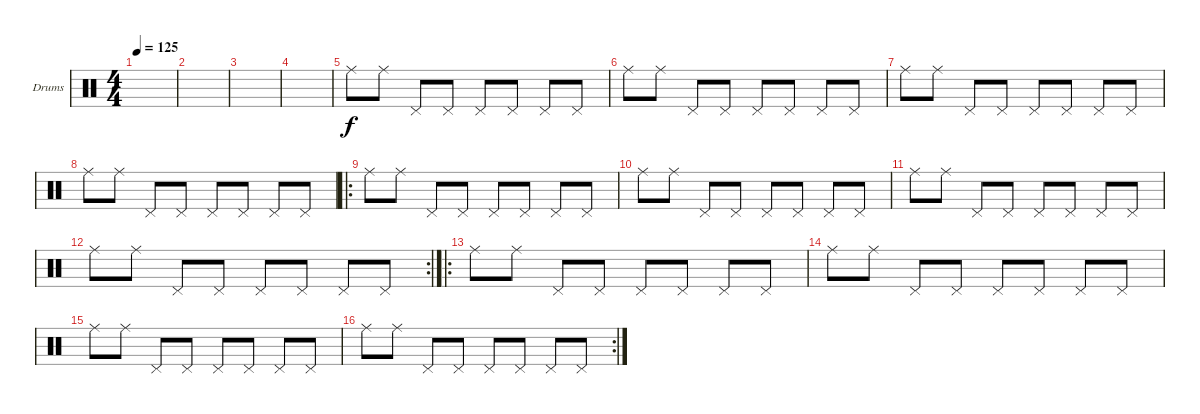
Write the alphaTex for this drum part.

\defaultSystemsLayout 4
\bracketExtendMode groupsimilarinstruments
\firstSystemTrackNameOrientation horizontal
\otherSystemsTrackNameOrientation horizontal
\track ("Drumkit" "Drums") {instrument percussion}
\staff {score}
\articulation defaults
\ts (4 4)
\tempo 125
\clef neutral
\scale
0.474178
\ks c
|
\scale
0.262911 |
\scale
0.262911 |
\scale
0.333333 |
\scale
0.333333 "Ride (middle)".8 "Ride (middle)".8 "Pedal Hi-Hat (hit)".8 "Pedal Hi-Hat (hit)".8 "Pedal Hi-Hat (hit)".8 "Pedal Hi-Hat (hit)".8 "Pedal Hi-Hat (hit)".8 "Pedal Hi-Hat (hit)".8 |
\scale
0.333333 "Ride (middle)".8 "Ride (middle)".8 "Pedal Hi-Hat (hit)".8 "Pedal Hi-Hat (hit)".8 "Pedal Hi-Hat (hit)".8 "Pedal Hi-Hat (hit)".8 "Pedal Hi-Hat (hit)".8 "Pedal Hi-Hat (hit)".8 |
\scale
0.333333 "Ride (middle)".8 "Ride (middle)".8 "Pedal Hi-Hat (hit)".8 "Pedal Hi-Hat (hit)".8 "Pedal Hi-Hat (hit)".8 "Pedal Hi-Hat (hit)".8 "Pedal Hi-Hat (hit)".8 "Pedal Hi-Hat (hit)".8 |
\scale
0.333333 "Ride (middle)".8 "Ride (middle)".8 "Pedal Hi-Hat (hit)".8 "Pedal Hi-Hat (hit)".8 "Pedal Hi-Hat (hit)".8 "Pedal Hi-Hat (hit)".8 "Pedal Hi-Hat (hit)".8 "Pedal Hi-Hat (hit)".8 |
\ro
\scale
0.333333 "Ride (middle)".8 "Ride (middle)".8 "Pedal Hi-Hat (hit)".8 "Pedal Hi-Hat (hit)".8 "Pedal Hi-Hat (hit)".8 "Pedal Hi-Hat (hit)".8 "Pedal Hi-Hat (hit)".8 "Pedal Hi-Hat (hit)".8 |
\scale
0.333333 "Ride (middle)".8 "Ride (middle)".8 "Pedal Hi-Hat (hit)".8 "Pedal Hi-Hat (hit)".8 "Pedal Hi-Hat (hit)".8 "Pedal Hi-Hat (hit)".8 "Pedal Hi-Hat (hit)".8 "Pedal Hi-Hat (hit)".8 |
\scale
0.333333 "Ride (middle)".8 "Ride (middle)".8 "Pedal Hi-Hat (hit)".8 "Pedal Hi-Hat (hit)".8 "Pedal Hi-Hat (hit)".8 "Pedal Hi-Hat (hit)".8 "Pedal Hi-Hat (hit)".8 "Pedal Hi-Hat (hit)".8 |
\rc 2
\scale
0.333333 "Ride (middle)".8 "Ride (middle)".8 "Pedal Hi-Hat (hit)".8 "Pedal Hi-Hat (hit)".8 "Pedal Hi-Hat (hit)".8 "Pedal Hi-Hat (hit)".8 "Pedal Hi-Hat (hit)".8 "Pedal Hi-Hat (hit)".8 |
\ro
\scale
0.333333 "Ride (middle)".8 "Ride (middle)".8 "Pedal Hi-Hat (hit)".8 "Pedal Hi-Hat (hit)".8 "Pedal Hi-Hat (hit)".8 "Pedal Hi-Hat (hit)".8 "Pedal Hi-Hat (hit)".8 "Pedal Hi-Hat (hit)".8 |
\scale
0.333333 "Ride (middle)".8 "Ride (middle)".8 "Pedal Hi-Hat (hit)".8 "Pedal Hi-Hat (hit)".8 "Pedal Hi-Hat (hit)".8 "Pedal Hi-Hat (hit)".8 "Pedal Hi-Hat (hit)".8 "Pedal Hi-Hat (hit)".8 |
\scale
0.333333 "Ride (middle)".8 "Ride (middle)".8 "Pedal Hi-Hat (hit)".8 "Pedal Hi-Hat (hit)".8 "Pedal Hi-Hat (hit)".8 "Pedal Hi-Hat (hit)".8 "Pedal Hi-Hat (hit)".8 "Pedal Hi-Hat (hit)".8 |
\rc 2 "Ride (middle)".8 "Ride (middle)".8 "Pedal Hi-Hat (hit)".8 "Pedal Hi-Hat (hit)".8 "Pedal Hi-Hat (hit)".8 "Pedal Hi-Hat (hit)".8 "Pedal Hi-Hat (hit)".8 "Pedal Hi-Hat (hit)".8
